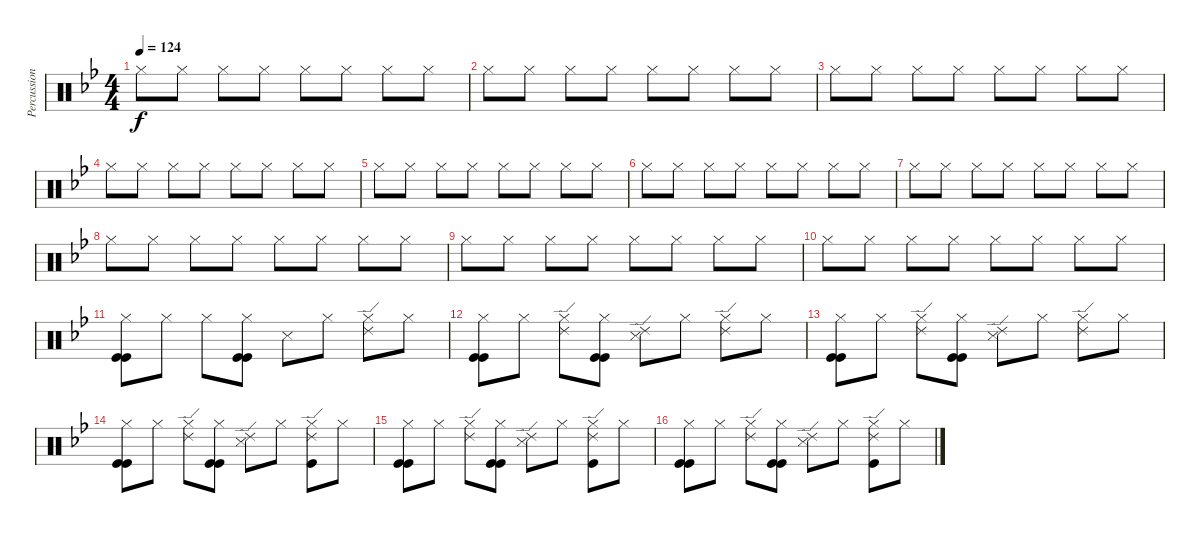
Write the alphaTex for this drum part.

\track ("Percussion" "Percussion") {instrument percussion}
\staff {score}
\articulation defaults
\ts (4 4)
\tempo 124
\clef neutral
\ks gminor "Hi-Hat (closed)".8{dy f} "Hi-Hat (closed)".8 "Hi-Hat (closed)".8 "Hi-Hat (closed)".8 "Hi-Hat (closed)".8 "Hi-Hat (closed)".8 "Hi-Hat (closed)".8 "Hi-Hat (closed)".8
|
"Hi-Hat (closed)".8 "Hi-Hat (closed)".8 "Hi-Hat (closed)".8 "Hi-Hat (closed)".8 "Hi-Hat (closed)".8 "Hi-Hat (closed)".8 "Hi-Hat (closed)".8 "Hi-Hat (closed)".8 |
"Hi-Hat (closed)".8 "Hi-Hat (closed)".8 "Hi-Hat (closed)".8 "Hi-Hat (closed)".8 "Hi-Hat (closed)".8 "Hi-Hat (closed)".8 "Hi-Hat (closed)".8 "Hi-Hat (closed)".8 |
"Hi-Hat (closed)".8 "Hi-Hat (closed)".8 "Hi-Hat (closed)".8 "Hi-Hat (closed)".8 "Hi-Hat (closed)".8 "Hi-Hat (closed)".8 "Hi-Hat (closed)".8 "Hi-Hat (closed)".8 |
"Hi-Hat (closed)".8 "Hi-Hat (closed)".8 "Hi-Hat (closed)".8 "Hi-Hat (closed)".8 "Hi-Hat (closed)".8 "Hi-Hat (closed)".8 "Hi-Hat (closed)".8 "Hi-Hat (closed)".8 |
"Hi-Hat (closed)".8 "Hi-Hat (closed)".8 "Hi-Hat (closed)".8 "Hi-Hat (closed)".8 "Hi-Hat (closed)".8 "Hi-Hat (closed)".8 "Hi-Hat (closed)".8 "Hi-Hat (closed)".8 |
"Hi-Hat (closed)".8 "Hi-Hat (closed)".8 "Hi-Hat (closed)".8 "Hi-Hat (closed)".8 "Hi-Hat (closed)".8 "Hi-Hat (closed)".8 "Hi-Hat (closed)".8 "Hi-Hat (closed)".8 |
"Hi-Hat (closed)".8 "Hi-Hat (closed)".8 "Hi-Hat (closed)".8 "Hi-Hat (closed)".8 "Hi-Hat (closed)".8 "Hi-Hat (closed)".8 "Hi-Hat (closed)".8 "Hi-Hat (closed)".8 |
"Hi-Hat (closed)".8 "Hi-Hat (closed)".8 "Hi-Hat (closed)".8 "Hi-Hat (closed)".8 "Hi-Hat (closed)".8 "Hi-Hat (closed)".8 "Hi-Hat (closed)".8 "Hi-Hat (closed)".8 |
"Hi-Hat (closed)".8 "Hi-Hat (closed)".8 "Hi-Hat (closed)".8 "Hi-Hat (closed)".8 "Hi-Hat (closed)".8 "Hi-Hat (closed)".8 "Hi-Hat (closed)".8 "Hi-Hat (closed)".8 |
("Hi-Hat (closed)" "Kick (hit)" "Kick (hit)").8 "Hi-Hat (closed)".8 "Hi-Hat (closed)".8 ("Hi-Hat (closed)" "Kick (hit)" "Kick (hit)").8 "Snare (side stick) 3".8 "Hi-Hat (closed)".8 ("Ride (edge) 2" "Hi-Hat (closed)").8 "Hi-Hat (closed)".8 |
("Hi-Hat (closed)" "Kick (hit)" "Kick (hit)").8 "Hi-Hat (closed)".8 ("Ride (edge) 2" "Hi-Hat (closed)").8 ("Hi-Hat (closed)" "Kick (hit)" "Kick (hit)").8 ("Ride (edge) 2" "Snare (side stick) 3").8 "Hi-Hat (closed)".8 ("Ride (edge) 2" "Hi-Hat (closed)").8 "Hi-Hat (closed)".8 |
("Hi-Hat (closed)" "Kick (hit)" "Kick (hit)").8 "Hi-Hat (closed)".8 ("Ride (edge) 2" "Hi-Hat (closed)").8 ("Hi-Hat (closed)" "Kick (hit)" "Kick (hit)").8 ("Ride (edge) 2" "Snare (side stick) 3").8 "Hi-Hat (closed)".8 ("Ride (edge) 2" "Hi-Hat (closed)").8 "Hi-Hat (closed)".8 |
("Hi-Hat (closed)" "Kick (hit)" "Kick (hit)").8 "Hi-Hat (closed)".8 ("Ride (edge) 2" "Hi-Hat (closed)").8 ("Hi-Hat (closed)" "Kick (hit)" "Kick (hit)").8 ("Ride (edge) 2" "Snare (side stick) 3").8 "Hi-Hat (closed)".8 ("Ride (edge) 2" "Hi-Hat (closed)" "Kick (hit)").8 "Hi-Hat (closed)".8 |
("Hi-Hat (closed)" "Kick (hit)" "Kick (hit)").8 "Hi-Hat (closed)".8 ("Ride (edge) 2" "Hi-Hat (closed)").8 ("Hi-Hat (closed)" "Kick (hit)" "Kick (hit)").8 ("Ride (edge) 2" "Snare (side stick) 3").8 "Hi-Hat (closed)".8 ("Ride (edge) 2" "Hi-Hat (closed)" "Kick (hit)").8 "Hi-Hat (closed)".8 |
("Hi-Hat (closed)" "Kick (hit)" "Kick (hit)").8 "Hi-Hat (closed)".8 ("Ride (edge) 2" "Hi-Hat (closed)").8 ("Hi-Hat (closed)" "Kick (hit)" "Kick (hit)").8 ("Ride (edge) 2" "Snare (side stick) 3").8 "Hi-Hat (closed)".8 ("Ride (edge) 2" "Hi-Hat (closed)" "Kick (hit)").8 "Hi-Hat (closed)".8
